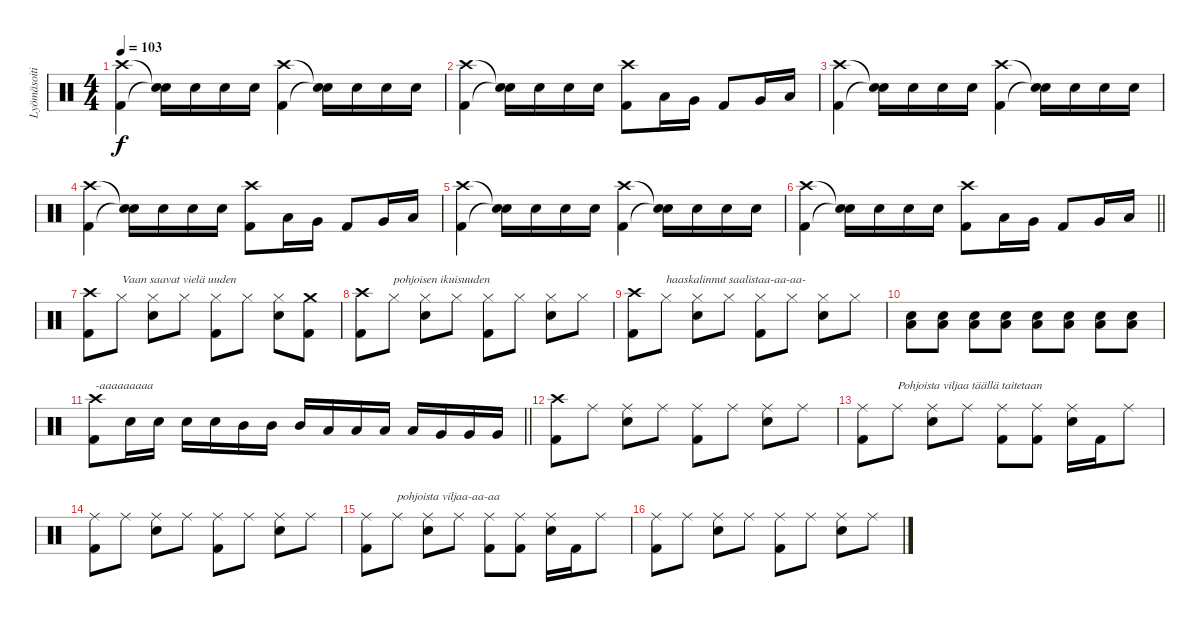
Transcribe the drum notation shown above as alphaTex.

\track ("Lyömäsoitin" "Lyömäsoiti") {instrument percussion}
\staff {score}
\articulation defaults
\ts (4 4)
\tempo 103
\clef neutral
\ks c
("Crash high (hit)" "Kick (hit) 2").4{dy f} ("Snare (hit)"{t} "Snare (hit)"{t}).16 "Snare (hit) 2".16 "Snare (hit) 2".16 "Snare (hit) 2".16 ("Crash high (hit)" "Kick (hit) 2").4 ("Snare (hit)"{t} "Snare (hit)"{t}).16 "Snare (hit) 2".16 "Snare (hit) 2".16 "Snare (hit) 2".16 |
("Crash high (hit)" "Kick (hit) 2").4 ("Snare (hit)"{t} "Snare (hit)"{t}).16 "Snare (hit) 2".16 "Snare (hit) 2".16 "Snare (hit) 2".16 ("Crash high (hit)" "Kick (hit) 2").8 "Low Tom (hit)".16 "Very Low Tom (hit)".16 "Kick (hit) 2".8 "Very Low Tom (hit)".16 "Low Floor Tom (hit)".16 |
("Crash high (hit)" "Kick (hit) 2").4 ("Snare (hit)"{t} "Snare (hit)"{t}).16 "Snare (hit) 2".16 "Snare (hit) 2".16 "Snare (hit) 2".16 ("Crash high (hit)" "Kick (hit) 2").4 ("Snare (hit)"{t} "Snare (hit)"{t}).16 "Snare (hit) 2".16 "Snare (hit) 2".16 "Snare (hit) 2".16 |
("Crash high (hit)" "Kick (hit) 2").4 ("Snare (hit)"{t} "Snare (hit)"{t}).16 "Snare (hit) 2".16 "Snare (hit) 2".16 "Snare (hit) 2".16 ("Crash high (hit)" "Kick (hit) 2").8 "Low Tom (hit)".16 "Very Low Tom (hit)".16 "Kick (hit) 2".8 "Very Low Tom (hit)".16 "Low Floor Tom (hit)".16 |
("Crash high (hit)" "Kick (hit) 2").4 ("Snare (hit)"{t} "Snare (hit)"{t}).16 "Snare (hit) 2".16 "Snare (hit) 2".16 "Snare (hit) 2".16 ("Crash high (hit)" "Kick (hit) 2").4 ("Snare (hit)"{t} "Snare (hit)"{t}).16 "Snare (hit) 2".16 "Snare (hit) 2".16 "Snare (hit) 2".16 |
\barLineRight lightlight
("Crash high (hit)" "Kick (hit) 2").4 ("Snare (hit)"{t} "Snare (hit)"{t}).16 "Snare (hit) 2".16 "Snare (hit) 2".16 "Snare (hit) 2".16 ("Crash high (hit)" "Kick (hit) 2").8 "Low Tom (hit)".16 "Very Low Tom (hit)".16 "Kick (hit) 2".8 "Very Low Tom (hit)".16 "Low Floor Tom (hit)".16 |
("Crash high (hit)" "Kick (hit) 2").8 "Hi-Hat (closed)".8{txt "Vaan saavat vielä uuden"} ("Hi-Hat (closed)" "Snare (hit) 2").8 "Hi-Hat (closed)".8 ("Hi-Hat (closed)" "Kick (hit) 2").8 "Hi-Hat (closed)".8 ("Hi-Hat (closed)" "Snare (hit) 2").8 ("Crash medium (hit)" "Kick (hit) 2").8 |
("Crash high (hit)" "Kick (hit) 2").8 "Hi-Hat (closed)".8{txt "pohjoisen ikuisuuden"} ("Hi-Hat (closed)" "Snare (hit) 2").8 "Hi-Hat (closed)".8 ("Hi-Hat (closed)" "Kick (hit) 2").8 "Hi-Hat (closed)".8 ("Hi-Hat (closed)" "Snare (hit) 2").8 "Hi-Hat (closed)".8 |
("Crash high (hit)" "Kick (hit) 2").8 "Hi-Hat (closed)".8{txt "haaskalinnut saalistaa-aa-aa-"} ("Hi-Hat (closed)" "Snare (hit) 2").8 "Hi-Hat (closed)".8 ("Hi-Hat (closed)" "Kick (hit) 2").8 "Hi-Hat (closed)".8 ("Hi-Hat (closed)" "Snare (hit) 2").8 "Hi-Hat (closed)".8 |
("Snare (hit) 2" "Low Floor Tom (hit)").8 ("Snare (hit) 2" "Low Floor Tom (hit)").8 ("Snare (hit) 2" "Low Floor Tom (hit)").8 ("Snare (hit) 2" "Low Floor Tom (hit)").8 ("Snare (hit) 2" "Low Floor Tom (hit)").8 ("Snare (hit) 2" "Low Floor Tom (hit)").8 ("Snare (hit) 2" "Low Floor Tom (hit)").8 ("Snare (hit) 2" "Low Floor Tom (hit)").8 |
\barLineRight lightlight
("Crash high (hit)" "Kick (hit) 2").8{txt "-aaaaaaaaa"} "Snare (hit) 2".16 "Snare (hit) 2".16 "Snare (hit) 2".16 "Snare (hit) 2".16 "Mid Tom (hit)".16 "Mid Tom (hit)".16 "Mid Tom (hit)".16 "Low Tom (hit)".16 "Low Tom (hit)".16 "Low Tom (hit)".16 "Low Tom (hit)".16 "Very Low Tom (hit)".16 "Very Low Tom (hit)".16 "Very Low Tom (hit)".16 |
("Crash high (hit)" "Kick (hit) 2").8 "Ride (middle)".8 ("Ride (middle)" "Snare (hit) 2").8 "Ride (middle)".8 ("Ride (middle)" "Kick (hit) 2").8 "Ride (middle)".8 ("Ride (middle)" "Snare (hit) 2").8 "Ride (middle)".8 |
("Ride (middle)" "Kick (hit) 2").8 "Ride (middle)".8{txt "Pohjoista viljaa täällä taitetaan"} ("Ride (middle)" "Snare (hit) 2").8 "Ride (middle)".8 ("Ride (middle)" "Kick (hit) 2").8 ("Ride (middle)" "Kick (hit) 2").8 ("Ride (middle)" "Snare (hit) 2").16 "Kick (hit) 2".16 "Ride (middle)".8 |
("Ride (middle)" "Kick (hit) 2").8 "Ride (middle)".8 ("Ride (middle)" "Snare (hit) 2").8 "Ride (middle)".8 ("Ride (middle)" "Kick (hit) 2").8 "Ride (middle)".8 ("Ride (middle)" "Snare (hit) 2").8 "Ride (middle)".8 |
("Ride (middle)" "Kick (hit) 2").8 "Ride (middle)".8{txt "pohjoista viljaa-aa-aa"} ("Ride (middle)" "Snare (hit) 2").8 "Ride (middle)".8 ("Ride (middle)" "Kick (hit) 2").8 ("Ride (middle)" "Kick (hit) 2").8 ("Ride (middle)" "Snare (hit) 2").16 "Kick (hit) 2".16 "Ride (middle)".8 |
("Ride (middle)" "Kick (hit) 2").8 "Ride (middle)".8 ("Ride (middle)" "Snare (hit) 2").8 "Ride (middle)".8 ("Ride (middle)" "Kick (hit) 2").8 "Ride (middle)".8 ("Ride (middle)" "Snare (hit) 2").8 "Ride (middle)".8
